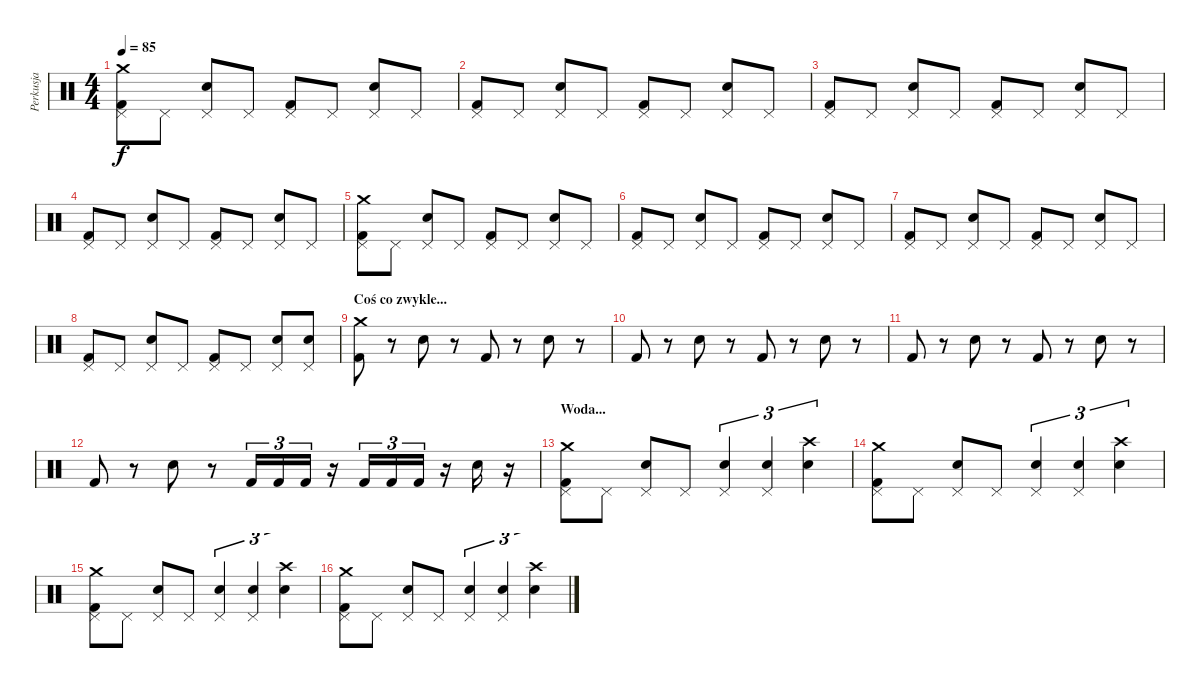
\track ("Perkusja" "Perkusja") {instrument percussion}
\staff {score}
\articulation defaults
\ts (4 4)
\tempo 85
\clef neutral
\ks c
("Crash medium (hit)" "Kick (hit) 2" "Pedal Hi-Hat (hit)").8{dy f} "Pedal Hi-Hat (hit)".8 ("Snare (hit) 2" "Pedal Hi-Hat (hit)").8 "Pedal Hi-Hat (hit)".8 ("Kick (hit) 2" "Pedal Hi-Hat (hit)").8 "Pedal Hi-Hat (hit)".8 ("Snare (hit) 2" "Pedal Hi-Hat (hit)").8 "Pedal Hi-Hat (hit)".8 |
("Kick (hit) 2" "Pedal Hi-Hat (hit)").8 "Pedal Hi-Hat (hit)".8 ("Snare (hit) 2" "Pedal Hi-Hat (hit)").8 "Pedal Hi-Hat (hit)".8 ("Kick (hit) 2" "Pedal Hi-Hat (hit)").8 "Pedal Hi-Hat (hit)".8 ("Snare (hit) 2" "Pedal Hi-Hat (hit)").8 "Pedal Hi-Hat (hit)".8 |
("Kick (hit) 2" "Pedal Hi-Hat (hit)").8 "Pedal Hi-Hat (hit)".8 ("Snare (hit) 2" "Pedal Hi-Hat (hit)").8 "Pedal Hi-Hat (hit)".8 ("Kick (hit) 2" "Pedal Hi-Hat (hit)").8 "Pedal Hi-Hat (hit)".8 ("Snare (hit) 2" "Pedal Hi-Hat (hit)").8 "Pedal Hi-Hat (hit)".8 |
("Kick (hit) 2" "Pedal Hi-Hat (hit)").8 "Pedal Hi-Hat (hit)".8 ("Snare (hit) 2" "Pedal Hi-Hat (hit)").8 "Pedal Hi-Hat (hit)".8 ("Kick (hit) 2" "Pedal Hi-Hat (hit)").8 "Pedal Hi-Hat (hit)".8 ("Snare (hit) 2" "Pedal Hi-Hat (hit)").8 "Pedal Hi-Hat (hit)".8 |
("Crash medium (hit)" "Kick (hit) 2" "Pedal Hi-Hat (hit)").8 "Pedal Hi-Hat (hit)".8 ("Snare (hit) 2" "Pedal Hi-Hat (hit)").8 "Pedal Hi-Hat (hit)".8 ("Kick (hit) 2" "Pedal Hi-Hat (hit)").8 "Pedal Hi-Hat (hit)".8 ("Snare (hit) 2" "Pedal Hi-Hat (hit)").8 "Pedal Hi-Hat (hit)".8 |
("Kick (hit) 2" "Pedal Hi-Hat (hit)").8 "Pedal Hi-Hat (hit)".8 ("Snare (hit) 2" "Pedal Hi-Hat (hit)").8 "Pedal Hi-Hat (hit)".8 ("Kick (hit) 2" "Pedal Hi-Hat (hit)").8 "Pedal Hi-Hat (hit)".8 ("Snare (hit) 2" "Pedal Hi-Hat (hit)").8 "Pedal Hi-Hat (hit)".8 |
("Kick (hit) 2" "Pedal Hi-Hat (hit)").8 "Pedal Hi-Hat (hit)".8 ("Snare (hit) 2" "Pedal Hi-Hat (hit)").8 "Pedal Hi-Hat (hit)".8 ("Kick (hit) 2" "Pedal Hi-Hat (hit)").8 "Pedal Hi-Hat (hit)".8 ("Snare (hit) 2" "Pedal Hi-Hat (hit)").8 "Pedal Hi-Hat (hit)".8 |
("Kick (hit) 2" "Pedal Hi-Hat (hit)").8 "Pedal Hi-Hat (hit)".8 ("Snare (hit) 2" "Pedal Hi-Hat (hit)").8 "Pedal Hi-Hat (hit)".8 ("Kick (hit) 2" "Pedal Hi-Hat (hit)").8 "Pedal Hi-Hat (hit)".8 ("Snare (hit) 2" "Pedal Hi-Hat (hit)").8 ("Snare (hit) 2" "Pedal Hi-Hat (hit)").8 |
\section ("" "Coś co zwykle...")
("Crash medium (hit)" "Kick (hit) 2").8 r.8 "Snare (hit) 2".8 r.8 "Kick (hit) 2".8 r.8 "Snare (hit) 2".8 r.8 |
"Kick (hit) 2".8 r.8 "Snare (hit) 2".8 r.8 "Kick (hit) 2".8 r.8 "Snare (hit) 2".8 r.8 |
"Kick (hit) 2".8 r.8 "Snare (hit) 2".8 r.8 "Kick (hit) 2".8 r.8 "Snare (hit) 2".8 r.8 |
"Kick (hit) 2".8 r.8 "Snare (hit) 2".8 r.8 "Kick (hit) 2".16{tu (3 2)} "Kick (hit) 2".16{tu (3 2)} "Kick (hit) 2".16{tu (3 2)} r.16 "Kick (hit) 2".16{tu (3 2)} "Kick (hit) 2".16{tu (3 2)} "Kick (hit) 2".16{tu (3 2)} r.16 "Snare (hit) 2".16 r.16 |
\section ("" "Woda...")
("Crash medium (hit)" "Kick (hit) 2" "Pedal Hi-Hat (hit)").8 "Pedal Hi-Hat (hit)".8 ("Snare (hit) 2" "Pedal Hi-Hat (hit)").8 "Pedal Hi-Hat (hit)".8 ("Snare (hit) 2" "Pedal Hi-Hat (hit)").4{tu (3 2)} ("Snare (hit) 2" "Pedal Hi-Hat (hit)").4{tu (3 2)} ("Snare (hit) 2" "Crash high (hit)").4{tu (3 2)} |
("Crash medium (hit)" "Kick (hit) 2" "Pedal Hi-Hat (hit)").8 "Pedal Hi-Hat (hit)".8 ("Snare (hit) 2" "Pedal Hi-Hat (hit)").8 "Pedal Hi-Hat (hit)".8 ("Snare (hit) 2" "Pedal Hi-Hat (hit)").4{tu (3 2)} ("Snare (hit) 2" "Pedal Hi-Hat (hit)").4{tu (3 2)} ("Snare (hit) 2" "Crash high (hit)").4{tu (3 2)} |
("Crash medium (hit)" "Kick (hit) 2" "Pedal Hi-Hat (hit)").8 "Pedal Hi-Hat (hit)".8 ("Snare (hit) 2" "Pedal Hi-Hat (hit)").8 "Pedal Hi-Hat (hit)".8 ("Snare (hit) 2" "Pedal Hi-Hat (hit)").4{tu (3 2)} ("Snare (hit) 2" "Pedal Hi-Hat (hit)").4{tu (3 2)} ("Snare (hit) 2" "Crash high (hit)").4{tu (3 2)} |
("Crash medium (hit)" "Kick (hit) 2" "Pedal Hi-Hat (hit)").8 "Pedal Hi-Hat (hit)".8 ("Snare (hit) 2" "Pedal Hi-Hat (hit)").8 "Pedal Hi-Hat (hit)".8 ("Snare (hit) 2" "Pedal Hi-Hat (hit)").4{tu (3 2)} ("Snare (hit) 2" "Pedal Hi-Hat (hit)").4{tu (3 2)} ("Snare (hit) 2" "Crash high (hit)").4{tu (3 2)}
